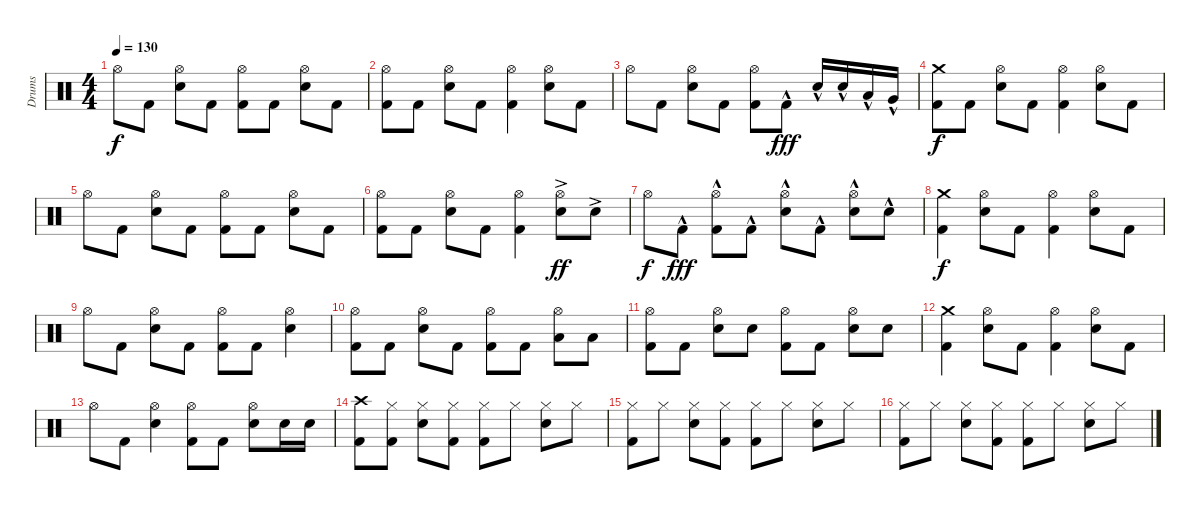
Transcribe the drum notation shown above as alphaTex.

\track ("Drums" "Drums") {instrument percussion}
\staff {score}
\articulation defaults
\ts (4 4)
\tempo 130
\clef neutral
\ks c "Hi-Hat (open)".8{dy f} "Kick (hit) 2".8
("Hi-Hat (open)" "Electric Snare (hit)").8 "Kick (hit) 2".8 ("Hi-Hat (open)" "Kick (hit) 2").8 "Kick (hit) 2".8 ("Hi-Hat (open)" "Electric Snare (hit)").8 "Kick (hit) 2".8 |
("Hi-Hat (open)" "Kick (hit) 2").8 "Kick (hit) 2".8 ("Hi-Hat (open)" "Electric Snare (hit)").8 "Kick (hit) 2".8 ("Hi-Hat (open)" "Kick (hit) 2").4 ("Hi-Hat (open)" "Electric Snare (hit)").8 "Kick (hit) 2".8 |
"Hi-Hat (open)".8 "Kick (hit) 2".8 ("Hi-Hat (open)" "Electric Snare (hit)").8 "Kick (hit) 2".8 ("Hi-Hat (open)" "Kick (hit) 2").8 "Kick (hit) 2"{hac}.8{dy fff} "Electric Snare (hit)"{hac}.16 "Electric Snare (hit)"{hac}.16 "Low Tom (hit)"{hac}.16 "Very Low Tom (hit)"{hac}.16 |
("Crash medium (hit)" "Kick (hit) 2").8{dy f} "Kick (hit) 2".8 ("Hi-Hat (open)" "Snare (hit) 2").8 "Kick (hit) 2".8 ("Hi-Hat (open)" "Kick (hit) 2").4 ("Hi-Hat (open)" "Electric Snare (hit)").8 "Kick (hit) 2".8 |
"Hi-Hat (open)".8 "Kick (hit) 2".8 ("Hi-Hat (open)" "Electric Snare (hit)").8 "Kick (hit) 2".8 ("Hi-Hat (open)" "Kick (hit) 2").8 "Kick (hit) 2".8 ("Hi-Hat (open)" "Electric Snare (hit)").8 "Kick (hit) 2".8 |
("Hi-Hat (open)" "Kick (hit) 2").8 "Kick (hit) 2".8 ("Hi-Hat (open)" "Electric Snare (hit)").8 "Kick (hit) 2".8 ("Hi-Hat (open)" "Kick (hit) 2").4 ("Hi-Hat (open)" "Electric Snare (hit)"{ac}).8{dy ff} "Electric Snare (hit)"{ac}.8 |
"Hi-Hat (open)".8{dy f} "Kick (hit) 2"{hac}.8{dy fff} ("Hi-Hat (open)" "Kick (hit) 2"{hac}).8 "Kick (hit) 2"{hac}.8 ("Hi-Hat (open)" "Electric Snare (hit)"{hac}).8 "Kick (hit) 2"{hac}.8 ("Hi-Hat (open)" "Electric Snare (hit)"{hac}).8 "Electric Snare (hit)"{hac}.8 |
("Crash medium (hit)" "Kick (hit) 2").4{dy f} ("Hi-Hat (open)" "Electric Snare (hit)").8 "Kick (hit) 2".8 ("Hi-Hat (open)" "Kick (hit) 2").4 ("Hi-Hat (open)" "Electric Snare (hit)").8 "Kick (hit) 2".8 |
"Hi-Hat (open)".8 "Kick (hit) 2".8 ("Hi-Hat (open)" "Electric Snare (hit)").8 "Kick (hit) 2".8 ("Hi-Hat (open)" "Kick (hit) 2").8 "Kick (hit) 2".8 ("Hi-Hat (open)" "Electric Snare (hit)").4 |
("Hi-Hat (open)" "Kick (hit) 2").8 "Kick (hit) 2".8 ("Hi-Hat (open)" "Electric Snare (hit)").8 "Kick (hit) 2".8 ("Hi-Hat (open)" "Kick (hit) 2").8 "Kick (hit) 2".8 ("Hi-Hat (open)" "Low Floor Tom (hit)").8 "Low Floor Tom (hit)".8 |
("Hi-Hat (open)" "Kick (hit) 2").8 "Kick (hit) 2".8 ("Hi-Hat (open)" "Electric Snare (hit)").8 "Electric Snare (hit)".8 ("Hi-Hat (open)" "Kick (hit) 2").8 "Kick (hit) 2".8 ("Hi-Hat (open)" "Electric Snare (hit)").8 "Electric Snare (hit)".8 |
("Crash medium (hit)" "Kick (hit) 2").4 ("Hi-Hat (open)" "Electric Snare (hit)").8 "Kick (hit) 2".8 ("Hi-Hat (open)" "Kick (hit) 2").4 ("Hi-Hat (open)" "Electric Snare (hit)").8 "Kick (hit) 2".8 |
"Hi-Hat (open)".8 "Kick (hit) 2".8 ("Hi-Hat (open)" "Electric Snare (hit)").4 ("Hi-Hat (open)" "Kick (hit) 2").8 "Kick (hit) 2".8 ("Hi-Hat (open)" "Electric Snare (hit)").8 "Electric Snare (hit)".16 "Electric Snare (hit)".16 |
("Crash high (hit)" "Kick (hit) 2").8 ("Hi-Hat (closed)" "Kick (hit) 2").8 ("Hi-Hat (closed)" "Electric Snare (hit)").8 ("Hi-Hat (closed)" "Kick (hit) 2").8 ("Hi-Hat (closed)" "Kick (hit) 2").8 "Hi-Hat (closed)".8 ("Hi-Hat (closed)" "Electric Snare (hit)").8 "Hi-Hat (closed)".8 |
("Hi-Hat (closed)" "Kick (hit) 2").8 "Hi-Hat (closed)".8 ("Hi-Hat (closed)" "Electric Snare (hit)").8 ("Hi-Hat (closed)" "Kick (hit) 2").8 ("Hi-Hat (closed)" "Kick (hit) 2").8 "Hi-Hat (closed)".8 ("Hi-Hat (closed)" "Electric Snare (hit)").8 "Hi-Hat (closed)".8 |
("Hi-Hat (closed)" "Kick (hit) 2").8 "Hi-Hat (closed)".8 ("Hi-Hat (closed)" "Electric Snare (hit)").8 ("Hi-Hat (closed)" "Kick (hit) 2").8 ("Hi-Hat (closed)" "Kick (hit) 2").8 "Hi-Hat (closed)".8 ("Hi-Hat (closed)" "Electric Snare (hit)").8 "Hi-Hat (closed)".8
